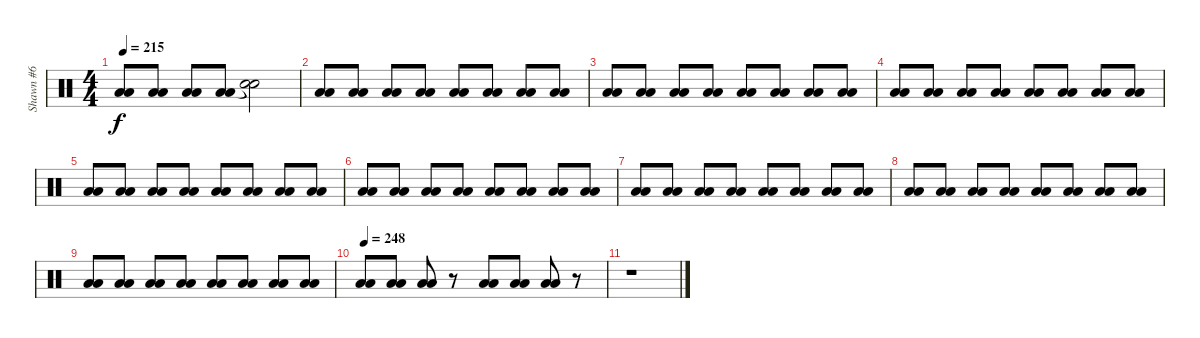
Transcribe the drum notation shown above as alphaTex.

\track ("Shawn #6" "Shawn #6") {instrument percussion}
\staff {score}
\articulation defaults
\ts (4 4)
\tempo 215
\clef neutral
\ks c
("Low Floor Tom (hit)" "Low Floor Tom (hit)").8{dy f} ("Low Floor Tom (hit)" "Low Floor Tom (hit)").8 ("Low Floor Tom (hit)" "Low Floor Tom (hit)").8 ("Low Floor Tom (hit)" "Low Floor Tom (hit)").8 ("Snare (hit)"{t} "Snare (hit)"{t}).2 |
("Low Floor Tom (hit)" "Low Floor Tom (hit)").8 ("Low Floor Tom (hit)" "Low Floor Tom (hit)").8 ("Low Floor Tom (hit)" "Low Floor Tom (hit)").8 ("Low Floor Tom (hit)" "Low Floor Tom (hit)").8 ("Low Floor Tom (hit)" "Low Floor Tom (hit)").8 ("Low Floor Tom (hit)" "Low Floor Tom (hit)").8 ("Low Floor Tom (hit)" "Low Floor Tom (hit)").8 ("Low Floor Tom (hit)" "Low Floor Tom (hit)").8 |
("Low Floor Tom (hit)" "Low Floor Tom (hit)").8 ("Low Floor Tom (hit)" "Low Floor Tom (hit)").8 ("Low Floor Tom (hit)" "Low Floor Tom (hit)").8 ("Low Floor Tom (hit)" "Low Floor Tom (hit)").8 ("Low Floor Tom (hit)" "Low Floor Tom (hit)").8 ("Low Floor Tom (hit)" "Low Floor Tom (hit)").8 ("Low Floor Tom (hit)" "Low Floor Tom (hit)").8 ("Low Floor Tom (hit)" "Low Floor Tom (hit)").8 |
("Low Floor Tom (hit)" "Low Floor Tom (hit)").8 ("Low Floor Tom (hit)" "Low Floor Tom (hit)").8 ("Low Floor Tom (hit)" "Low Floor Tom (hit)").8 ("Low Floor Tom (hit)" "Low Floor Tom (hit)").8 ("Low Floor Tom (hit)" "Low Floor Tom (hit)").8 ("Low Floor Tom (hit)" "Low Floor Tom (hit)").8 ("Low Floor Tom (hit)" "Low Floor Tom (hit)").8 ("Low Floor Tom (hit)" "Low Floor Tom (hit)").8 |
("Low Floor Tom (hit)" "Low Floor Tom (hit)").8 ("Low Floor Tom (hit)" "Low Floor Tom (hit)").8 ("Low Floor Tom (hit)" "Low Floor Tom (hit)").8 ("Low Floor Tom (hit)" "Low Floor Tom (hit)").8 ("Low Floor Tom (hit)" "Low Floor Tom (hit)").8 ("Low Floor Tom (hit)" "Low Floor Tom (hit)").8 ("Low Floor Tom (hit)" "Low Floor Tom (hit)").8 ("Low Floor Tom (hit)" "Low Floor Tom (hit)").8 |
("Low Floor Tom (hit)" "Low Floor Tom (hit)").8 ("Low Floor Tom (hit)" "Low Floor Tom (hit)").8 ("Low Floor Tom (hit)" "Low Floor Tom (hit)").8 ("Low Floor Tom (hit)" "Low Floor Tom (hit)").8 ("Low Floor Tom (hit)" "Low Floor Tom (hit)").8 ("Low Floor Tom (hit)" "Low Floor Tom (hit)").8 ("Low Floor Tom (hit)" "Low Floor Tom (hit)").8 ("Low Floor Tom (hit)" "Low Floor Tom (hit)").8 |
("Low Floor Tom (hit)" "Low Floor Tom (hit)").8 ("Low Floor Tom (hit)" "Low Floor Tom (hit)").8 ("Low Floor Tom (hit)" "Low Floor Tom (hit)").8 ("Low Floor Tom (hit)" "Low Floor Tom (hit)").8 ("Low Floor Tom (hit)" "Low Floor Tom (hit)").8 ("Low Floor Tom (hit)" "Low Floor Tom (hit)").8 ("Low Floor Tom (hit)" "Low Floor Tom (hit)").8 ("Low Floor Tom (hit)" "Low Floor Tom (hit)").8 |
("Low Floor Tom (hit)" "Low Floor Tom (hit)").8 ("Low Floor Tom (hit)" "Low Floor Tom (hit)").8 ("Low Floor Tom (hit)" "Low Floor Tom (hit)").8 ("Low Floor Tom (hit)" "Low Floor Tom (hit)").8 ("Low Floor Tom (hit)" "Low Floor Tom (hit)").8 ("Low Floor Tom (hit)" "Low Floor Tom (hit)").8 ("Low Floor Tom (hit)" "Low Floor Tom (hit)").8 ("Low Floor Tom (hit)" "Low Floor Tom (hit)").8 |
("Low Floor Tom (hit)" "Low Floor Tom (hit)").8 ("Low Floor Tom (hit)" "Low Floor Tom (hit)").8 ("Low Floor Tom (hit)" "Low Floor Tom (hit)").8 ("Low Floor Tom (hit)" "Low Floor Tom (hit)").8 ("Low Floor Tom (hit)" "Low Floor Tom (hit)").8 ("Low Floor Tom (hit)" "Low Floor Tom (hit)").8 ("Low Floor Tom (hit)" "Low Floor Tom (hit)").8 ("Low Floor Tom (hit)" "Low Floor Tom (hit)").8 |
\tempo 248
("Low Floor Tom (hit)" "Low Floor Tom (hit)").8 ("Low Floor Tom (hit)" "Low Floor Tom (hit)").8 ("Low Floor Tom (hit)" "Low Floor Tom (hit)").8 r.8 ("Low Floor Tom (hit)" "Low Floor Tom (hit)").8 ("Low Floor Tom (hit)" "Low Floor Tom (hit)").8 ("Low Floor Tom (hit)" "Low Floor Tom (hit)").8 r.8 |
r.1
